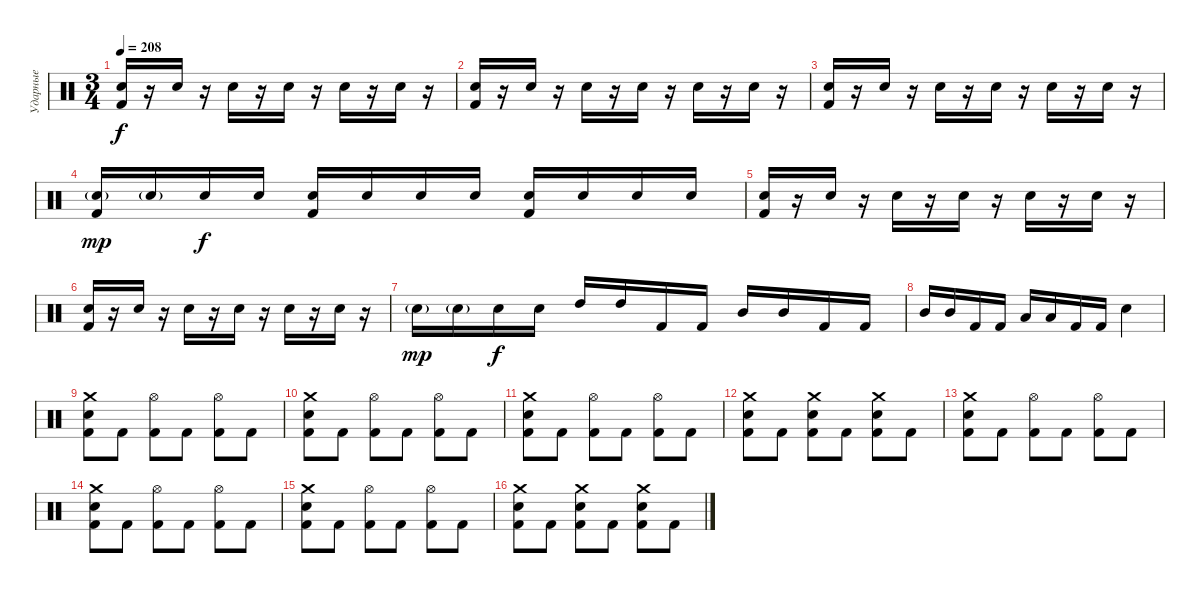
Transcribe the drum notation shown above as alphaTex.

\track ("Ударные" "Ударные") {instrument percussion}
\staff {score}
\articulation defaults
\ts (3 4)
\tempo 208
\clef neutral
\ks c
("Electric Snare (hit)" "Kick (hit) 2").16{dy f} r.16 "Electric Snare (hit)".16 r.16 "Electric Snare (hit)".16 r.16 "Electric Snare (hit)".16 r.16 "Electric Snare (hit)".16 r.16 "Electric Snare (hit)".16 r.16 |
("Electric Snare (hit)" "Kick (hit) 2").16 r.16 "Electric Snare (hit)".16 r.16 "Electric Snare (hit)".16 r.16 "Electric Snare (hit)".16 r.16 "Electric Snare (hit)".16 r.16 "Electric Snare (hit)".16 r.16 |
("Electric Snare (hit)" "Kick (hit) 2").16 r.16 "Electric Snare (hit)".16 r.16 "Electric Snare (hit)".16 r.16 "Electric Snare (hit)".16 r.16 "Electric Snare (hit)".16 r.16 "Electric Snare (hit)".16 r.16 |
("Electric Snare (hit)"{g} "Kick (hit) 2").16{dy mp} "Electric Snare (hit)"{g}.16 "Electric Snare (hit)".16{dy f} "Electric Snare (hit)".16 ("Electric Snare (hit)" "Kick (hit) 2").16 "Electric Snare (hit)".16 "Electric Snare (hit)".16 "Electric Snare (hit)".16 ("Electric Snare (hit)" "Kick (hit) 2").16 "Electric Snare (hit)".16 "Electric Snare (hit)".16 "Electric Snare (hit)".16 |
("Electric Snare (hit)" "Kick (hit) 2").16 r.16 "Electric Snare (hit)".16 r.16 "Electric Snare (hit)".16 r.16 "Electric Snare (hit)".16 r.16 "Electric Snare (hit)".16 r.16 "Electric Snare (hit)".16 r.16 |
("Electric Snare (hit)" "Kick (hit) 2").16 r.16 "Electric Snare (hit)".16 r.16 "Electric Snare (hit)".16 r.16 "Electric Snare (hit)".16 r.16 "Electric Snare (hit)".16 r.16 "Electric Snare (hit)".16 r.16 |
"Electric Snare (hit)"{g}.16{dy mp} "Electric Snare (hit)"{g}.16 "Electric Snare (hit)".16{dy f} "Electric Snare (hit)".16 "High Tom (hit)".16 "High Tom (hit)".16 "Kick (hit) 2".16 "Kick (hit) 2".16 "Mid Tom (hit)".16 "Mid Tom (hit)".16 "Kick (hit) 2".16 "Kick (hit) 2".16 |
"Mid Tom (hit)".16 "Mid Tom (hit)".16 "Kick (hit) 2".16 "Kick (hit) 2".16 "Low Tom (hit)".16 "Low Tom (hit)".16 "Kick (hit) 2".16 "Kick (hit) 2".16 "Electric Snare (hit)".4 |
("Crash medium (hit)" "Electric Snare (hit)" "Kick (hit) 2").8{volume 13} "Kick (hit) 2".8 ("Hi-Hat (open)" "Kick (hit) 2").8 "Kick (hit) 2".8 ("Hi-Hat (open)" "Kick (hit) 2").8 "Kick (hit) 2".8 |
("Crash medium (hit)" "Electric Snare (hit)" "Kick (hit) 2").8 "Kick (hit) 2".8 ("Hi-Hat (open)" "Kick (hit) 2").8 "Kick (hit) 2".8 ("Hi-Hat (open)" "Kick (hit) 2").8 "Kick (hit) 2".8 |
("Crash medium (hit)" "Electric Snare (hit)" "Kick (hit) 2").8 "Kick (hit) 2".8 ("Hi-Hat (open)" "Kick (hit) 2").8 "Kick (hit) 2".8 ("Hi-Hat (open)" "Kick (hit) 2").8 "Kick (hit) 2".8 |
("Crash medium (hit)" "Electric Snare (hit)" "Kick (hit) 2").8 "Kick (hit) 2".8 ("Crash medium (hit)" "Electric Snare (hit)" "Kick (hit) 2").8 "Kick (hit) 2".8 ("Crash medium (hit)" "Electric Snare (hit)" "Kick (hit) 2").8 "Kick (hit) 2".8 |
("Crash medium (hit)" "Electric Snare (hit)" "Kick (hit) 2").8 "Kick (hit) 2".8 ("Hi-Hat (open)" "Kick (hit) 2").8 "Kick (hit) 2".8 ("Hi-Hat (open)" "Kick (hit) 2").8 "Kick (hit) 2".8 |
("Crash medium (hit)" "Electric Snare (hit)" "Kick (hit) 2").8 "Kick (hit) 2".8 ("Hi-Hat (open)" "Kick (hit) 2").8 "Kick (hit) 2".8 ("Hi-Hat (open)" "Kick (hit) 2").8 "Kick (hit) 2".8 |
("Crash medium (hit)" "Electric Snare (hit)" "Kick (hit) 2").8 "Kick (hit) 2".8 ("Hi-Hat (open)" "Kick (hit) 2").8 "Kick (hit) 2".8 ("Hi-Hat (open)" "Kick (hit) 2").8 "Kick (hit) 2".8 |
("Crash medium (hit)" "Electric Snare (hit)" "Kick (hit) 2").8 "Kick (hit) 2".8 ("Crash medium (hit)" "Electric Snare (hit)" "Kick (hit) 2").8 "Kick (hit) 2".8 ("Crash medium (hit)" "Electric Snare (hit)" "Kick (hit) 2").8 "Kick (hit) 2".8
